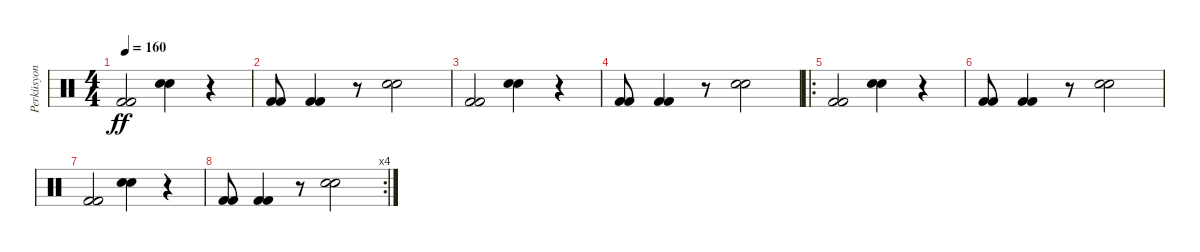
\track ("Perküsyon" "Perküsyon") {instrument percussion}
\staff {score}
\articulation defaults
\ts (4 4)
\tempo 160
\clef neutral
\ks c
("Kick (hit) 2" "Kick (hit) 2").2{dy ff} ("Electric Snare (hit)" "Electric Snare (hit)").4 r.4 |
("Kick (hit) 2" "Kick (hit) 2").8 ("Kick (hit) 2" "Kick (hit) 2").4 r.8 ("Electric Snare (hit)" "Electric Snare (hit)").2 |
("Kick (hit) 2" "Kick (hit) 2").2 ("Electric Snare (hit)" "Electric Snare (hit)").4 r.4 |
("Kick (hit) 2" "Kick (hit) 2").8 ("Kick (hit) 2" "Kick (hit) 2").4 r.8 ("Electric Snare (hit)" "Electric Snare (hit)").2 |
\ro
("Kick (hit) 2" "Kick (hit) 2").2 ("Electric Snare (hit)" "Electric Snare (hit)").4 r.4 |
("Kick (hit) 2" "Kick (hit) 2").8 ("Kick (hit) 2" "Kick (hit) 2").4 r.8 ("Electric Snare (hit)" "Electric Snare (hit)").2 |
("Kick (hit) 2" "Kick (hit) 2").2 ("Electric Snare (hit)" "Electric Snare (hit)").4 r.4 |
\rc 4
("Kick (hit) 2" "Kick (hit) 2").8 ("Kick (hit) 2" "Kick (hit) 2").4 r.8 ("Electric Snare (hit)" "Electric Snare (hit)").2
